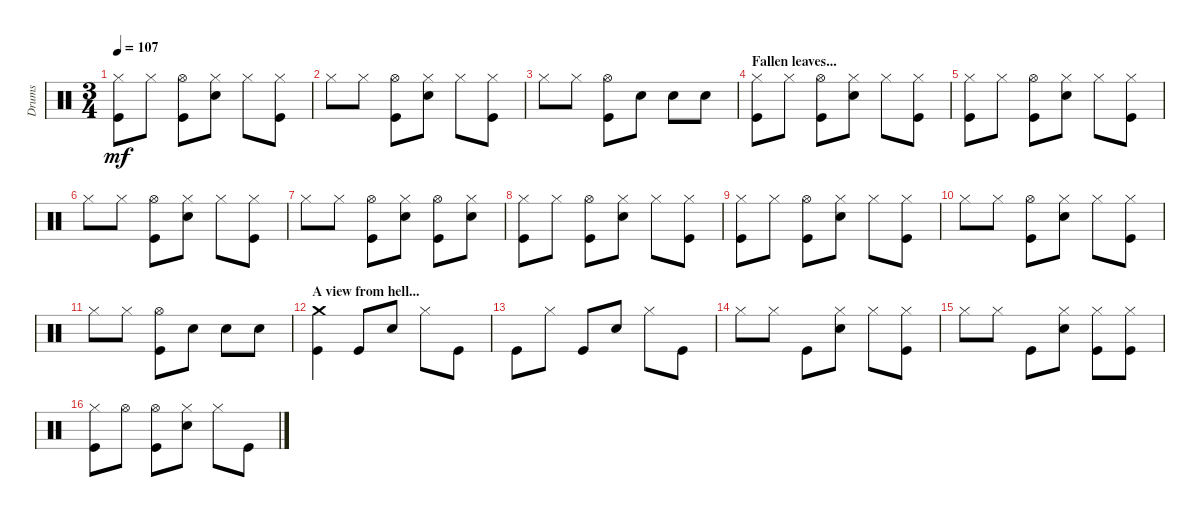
\track ("Drums" "Drums") {instrument percussion}
\staff {score}
\articulation defaults
\ts (3 4)
\tempo 107
\clef neutral
\ks c
("Hi-Hat (closed)" "Kick (hit)").8{dy mf} "Hi-Hat (closed)".8 ("Hi-Hat (open)" "Kick (hit)").8 ("Hi-Hat (closed)" "Snare (hit) 2").8 "Hi-Hat (closed)".8 ("Hi-Hat (closed)" "Kick (hit)").8 |
"Hi-Hat (closed)".8 "Hi-Hat (closed)".8 ("Hi-Hat (open)" "Kick (hit)").8 ("Snare (hit) 2" "Hi-Hat (closed)").8 "Hi-Hat (closed)".8 ("Kick (hit)" "Hi-Hat (closed)").8 |
"Hi-Hat (closed)".8 "Hi-Hat (closed)".8 ("Hi-Hat (open)" "Kick (hit)").8 "Snare (hit) 2".8 "Snare (hit) 2".8 "Snare (hit) 2".8 |
\section ("" "Fallen leaves...")
("Hi-Hat (closed)" "Kick (hit)").8 "Hi-Hat (closed)".8 ("Hi-Hat (open)" "Kick (hit)").8 ("Snare (hit) 2" "Hi-Hat (closed)").8 "Hi-Hat (closed)".8 ("Hi-Hat (closed)" "Kick (hit)").8 |
("Hi-Hat (closed)" "Kick (hit)").8 "Hi-Hat (closed)".8 ("Hi-Hat (open)" "Kick (hit)").8 ("Hi-Hat (closed)" "Snare (hit) 2").8 "Hi-Hat (closed)".8 ("Hi-Hat (closed)" "Kick (hit)").8 |
"Hi-Hat (closed)".8 "Hi-Hat (closed)".8 ("Hi-Hat (open)" "Kick (hit)").8 ("Snare (hit) 2" "Hi-Hat (closed)").8 "Hi-Hat (closed)".8 ("Kick (hit)" "Hi-Hat (closed)").8 |
"Hi-Hat (closed)".8 "Hi-Hat (closed)".8 ("Hi-Hat (open)" "Kick (hit)").8 ("Hi-Hat (closed)" "Snare (hit) 2").8 ("Hi-Hat (open)" "Kick (hit)").8 ("Hi-Hat (closed)" "Snare (hit) 2").8 |
("Hi-Hat (closed)" "Kick (hit)").8 "Hi-Hat (closed)".8 ("Hi-Hat (open)" "Kick (hit)").8 ("Snare (hit) 2" "Hi-Hat (closed)").8 "Hi-Hat (closed)".8 ("Hi-Hat (closed)" "Kick (hit)").8 |
("Hi-Hat (closed)" "Kick (hit)").8 "Hi-Hat (closed)".8 ("Hi-Hat (open)" "Kick (hit)").8 ("Hi-Hat (closed)" "Snare (hit) 2").8 "Hi-Hat (closed)".8 ("Hi-Hat (closed)" "Kick (hit)").8 |
"Hi-Hat (closed)".8 "Hi-Hat (closed)".8 ("Hi-Hat (open)" "Kick (hit)").8 ("Snare (hit) 2" "Hi-Hat (closed)").8 "Hi-Hat (closed)".8 ("Kick (hit)" "Hi-Hat (closed)").8 |
"Hi-Hat (closed)".8 "Hi-Hat (closed)".8 ("Hi-Hat (open)" "Kick (hit)").8 "Snare (hit) 2".8 "Snare (hit) 2".8 "Snare (hit) 2".8 |
\section ("" "A view from hell...")
("Crash medium (hit)" "Kick (hit)").4 "Kick (hit)".8 "Snare (hit) 2".8 "Hi-Hat (closed)".8 "Kick (hit)".8 |
"Kick (hit)".8 "Hi-Hat (closed)".8 "Kick (hit)".8 "Snare (hit) 2".8 "Hi-Hat (closed)".8 "Kick (hit)".8 |
"Hi-Hat (closed)".8 "Hi-Hat (closed)".8 "Kick (hit)".8 ("Snare (hit) 2" "Hi-Hat (closed)").8 "Hi-Hat (closed)".8 ("Kick (hit)" "Hi-Hat (closed)").8 |
"Hi-Hat (closed)".8 "Hi-Hat (closed)".8 "Kick (hit)".8 ("Snare (hit) 2" "Hi-Hat (closed)").8 ("Kick (hit)" "Hi-Hat (closed)").8 ("Kick (hit)" "Hi-Hat (closed)").8 |
("Kick (hit)" "Hi-Hat (closed)").8 "Hi-Hat (open)".8 ("Kick (hit)" "Hi-Hat (open)").8 ("Snare (hit) 2" "Hi-Hat (closed)").8 "Hi-Hat (closed)".8 "Kick (hit)".8
